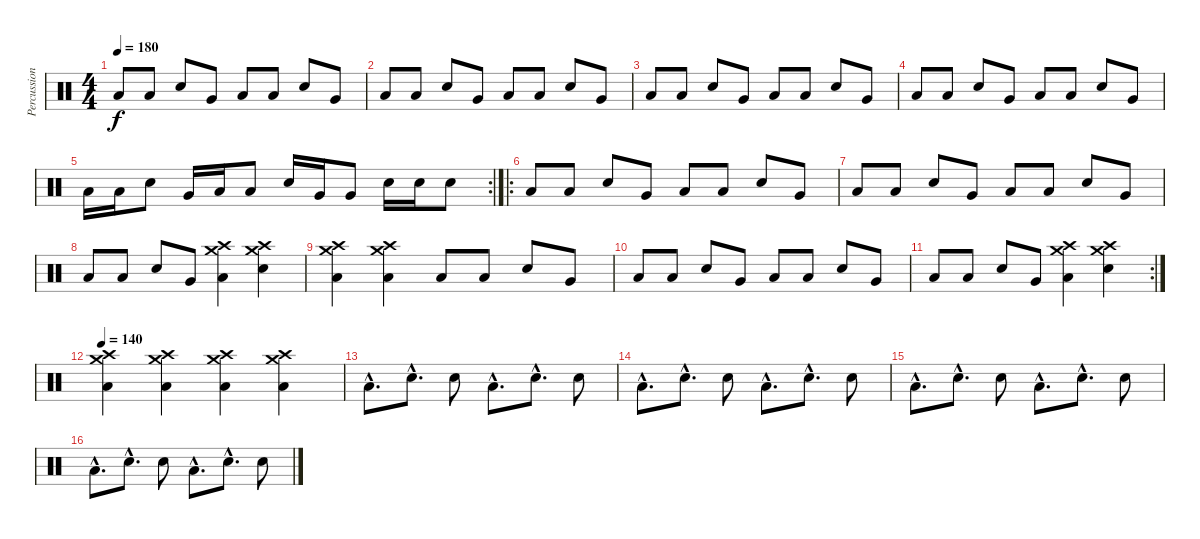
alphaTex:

\track ("Percussions" "Percussion") {instrument percussion}
\staff {score}
\articulation defaults
\ts (4 4)
\tempo 180
\clef neutral
\ks c "Low Floor Tom (hit)".8{dy f} "Low Floor Tom (hit)".8 "Electric Snare (hit)".8 "Very Low Tom (hit)".8 "Low Floor Tom (hit)".8 "Low Floor Tom (hit)".8 "Electric Snare (hit)".8 "Very Low Tom (hit)".8
|
"Low Floor Tom (hit)".8 "Low Floor Tom (hit)".8 "Electric Snare (hit)".8 "Very Low Tom (hit)".8 "Low Floor Tom (hit)".8 "Low Floor Tom (hit)".8 "Electric Snare (hit)".8 "Very Low Tom (hit)".8 |
"Low Floor Tom (hit)".8 "Low Floor Tom (hit)".8 "Electric Snare (hit)".8 "Very Low Tom (hit)".8 "Low Floor Tom (hit)".8 "Low Floor Tom (hit)".8 "Electric Snare (hit)".8 "Very Low Tom (hit)".8 |
"Low Floor Tom (hit)".8 "Low Floor Tom (hit)".8 "Electric Snare (hit)".8 "Very Low Tom (hit)".8 "Low Floor Tom (hit)".8 "Low Floor Tom (hit)".8 "Electric Snare (hit)".8 "Very Low Tom (hit)".8 |
\rc 2 "Low Floor Tom (hit)".16 "Low Floor Tom (hit)".16 "Electric Snare (hit)".8 "Very Low Tom (hit)".16 "Low Floor Tom (hit)".16 "Low Floor Tom (hit)".8 "Electric Snare (hit)".16 "Very Low Tom (hit)".16 "Very Low Tom (hit)".8 "Electric Snare (hit)".16 "Electric Snare (hit)".16 "Electric Snare (hit)".8
|
\ro "Low Floor Tom (hit)".8 "Low Floor Tom (hit)".8 "Electric Snare (hit)".8 "Very Low Tom (hit)".8 "Low Floor Tom (hit)".8 "Low Floor Tom (hit)".8 "Electric Snare (hit)".8 "Very Low Tom (hit)".8
|
"Low Floor Tom (hit)".8 "Low Floor Tom (hit)".8 "Electric Snare (hit)".8 "Very Low Tom (hit)".8 "Low Floor Tom (hit)".8 "Low Floor Tom (hit)".8 "Electric Snare (hit)".8 "Very Low Tom (hit)".8 |
"Low Floor Tom (hit)".8 "Low Floor Tom (hit)".8 "Electric Snare (hit)".8 "Very Low Tom (hit)".8 ("Crash high (hit)" "Low Floor Tom (hit)" "Crash medium (hit)").4 ("Crash high (hit)" "Electric Snare (hit)" "Crash medium (hit)").4 |
("Crash high (hit)" "Low Floor Tom (hit)" "Crash medium (hit)").4 ("Crash high (hit)" "Low Floor Tom (hit)" "Crash medium (hit)").4 "Low Floor Tom (hit)".8 "Low Floor Tom (hit)".8 "Electric Snare (hit)".8 "Very Low Tom (hit)".8 |
"Low Floor Tom (hit)".8 "Low Floor Tom (hit)".8 "Electric Snare (hit)".8 "Very Low Tom (hit)".8 "Low Floor Tom (hit)".8 "Low Floor Tom (hit)".8 "Electric Snare (hit)".8 "Very Low Tom (hit)".8 |
\rc 2 "Low Floor Tom (hit)".8 "Low Floor Tom (hit)".8 "Electric Snare (hit)".8 "Very Low Tom (hit)".8
("Crash high (hit)" "Low Floor Tom (hit)" "Crash medium (hit)").4 ("Crash high (hit)" "Electric Snare (hit)" "Crash medium (hit)").4 |
\tempo 140
("Crash high (hit)" "Low Floor Tom (hit)" "Crash medium (hit)").4 ("Crash high (hit)" "Low Floor Tom (hit)" "Crash medium (hit)").4 ("Crash high (hit)" "Low Floor Tom (hit)" "Crash medium (hit)").4 ("Crash high (hit)" "Low Floor Tom (hit)" "Crash medium (hit)").4 |
"Low Tom (hit)"{hac}.8{d volume 10} "Electric Snare (hit)"{hac}.8{d} "Electric Snare (hit)".8 "Low Tom (hit)"{hac}.8{d} "Electric Snare (hit)"{hac}.8{d} "Electric Snare (hit)".8 |
"Low Tom (hit)"{hac}.8{d} "Electric Snare (hit)"{hac}.8{d} "Electric Snare (hit)".8 "Low Tom (hit)"{hac}.8{d} "Electric Snare (hit)"{hac}.8{d} "Electric Snare (hit)".8 |
"Low Tom (hit)"{hac}.8{d} "Electric Snare (hit)"{hac}.8{d} "Electric Snare (hit)".8 "Low Tom (hit)"{hac}.8{d} "Electric Snare (hit)"{hac}.8{d} "Electric Snare (hit)".8 |
"Low Tom (hit)"{hac}.8{d} "Electric Snare (hit)"{hac}.8{d} "Electric Snare (hit)".8 "Low Tom (hit)"{hac}.8{d} "Electric Snare (hit)"{hac}.8{d} "Electric Snare (hit)".8
